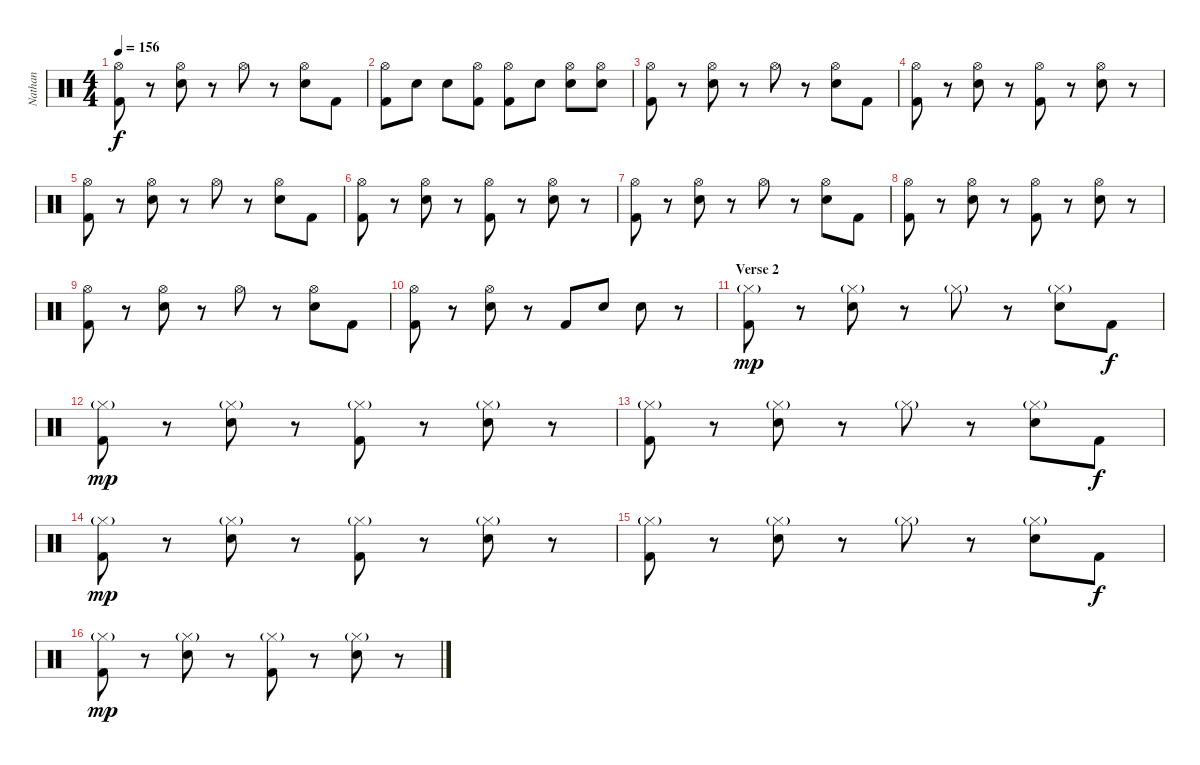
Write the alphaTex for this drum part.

\track ("Nathan" "Nathan") {instrument percussion}
\staff {score}
\articulation defaults
\ts (4 4)
\tempo 156
\clef neutral
\ks c
("Hi-Hat (open)" "Kick (hit) 2").8{dy f} r.8 ("Hi-Hat (open)" "Electric Snare (hit)").8 r.8 "Hi-Hat (open)".8 r.8 ("Hi-Hat (open)" "Electric Snare (hit)").8 "Kick (hit) 2".8 |
("Hi-Hat (open)" "Kick (hit) 2").8 "Electric Snare (hit)".8 "Electric Snare (hit)".8 ("Hi-Hat (open)" "Kick (hit) 2").8 ("Hi-Hat (open)" "Kick (hit) 2").8 "Electric Snare (hit)".8 ("Hi-Hat (open)" "Electric Snare (hit)").8 ("Hi-Hat (open)" "Electric Snare (hit)").8 |
("Hi-Hat (open)" "Kick (hit) 2").8 r.8 ("Hi-Hat (open)" "Electric Snare (hit)").8 r.8 "Hi-Hat (open)".8 r.8 ("Hi-Hat (open)" "Electric Snare (hit)").8 "Kick (hit) 2".8 |
("Hi-Hat (open)" "Kick (hit) 2").8 r.8 ("Hi-Hat (open)" "Electric Snare (hit)").8 r.8 ("Hi-Hat (open)" "Kick (hit) 2").8 r.8 ("Hi-Hat (open)" "Electric Snare (hit)").8 r.8 |
("Hi-Hat (open)" "Kick (hit) 2").8 r.8 ("Hi-Hat (open)" "Electric Snare (hit)").8 r.8 "Hi-Hat (open)".8 r.8 ("Hi-Hat (open)" "Electric Snare (hit)").8 "Kick (hit) 2".8 |
("Hi-Hat (open)" "Kick (hit) 2").8 r.8 ("Hi-Hat (open)" "Electric Snare (hit)").8 r.8 ("Hi-Hat (open)" "Kick (hit) 2").8 r.8 ("Hi-Hat (open)" "Electric Snare (hit)").8 r.8 |
("Hi-Hat (open)" "Kick (hit) 2").8 r.8 ("Hi-Hat (open)" "Electric Snare (hit)").8 r.8 "Hi-Hat (open)".8 r.8 ("Hi-Hat (open)" "Electric Snare (hit)").8 "Kick (hit) 2".8 |
("Hi-Hat (open)" "Kick (hit) 2").8 r.8 ("Hi-Hat (open)" "Electric Snare (hit)").8 r.8 ("Hi-Hat (open)" "Kick (hit) 2").8 r.8 ("Hi-Hat (open)" "Electric Snare (hit)").8 r.8 |
("Hi-Hat (open)" "Kick (hit) 2").8 r.8 ("Hi-Hat (open)" "Electric Snare (hit)").8 r.8 "Hi-Hat (open)".8 r.8 ("Hi-Hat (open)" "Electric Snare (hit)").8 "Kick (hit) 2".8 |
("Hi-Hat (open)" "Kick (hit) 2").8 r.8 ("Hi-Hat (open)" "Electric Snare (hit)").8 r.8 "Kick (hit) 2".8 "Electric Snare (hit)".8 "Electric Snare (hit)".8 r.8 |
\section ("" "Verse 2")
("Hi-Hat (closed)"{g} "Kick (hit) 2").8{dy mp} r.8 ("Hi-Hat (closed)"{g} "Electric Snare (hit)").8 r.8 "Hi-Hat (closed)"{g}.8 r.8 ("Hi-Hat (closed)"{g} "Electric Snare (hit)").8 "Kick (hit) 2".8{dy f} |
("Hi-Hat (closed)"{g} "Kick (hit) 2").8{dy mp} r.8 ("Hi-Hat (closed)"{g} "Electric Snare (hit)").8 r.8 ("Hi-Hat (closed)"{g} "Kick (hit) 2").8 r.8 ("Hi-Hat (closed)"{g} "Electric Snare (hit)").8 r.8 |
("Hi-Hat (closed)"{g} "Kick (hit) 2").8 r.8 ("Hi-Hat (closed)"{g} "Electric Snare (hit)").8 r.8 "Hi-Hat (closed)"{g}.8 r.8 ("Hi-Hat (closed)"{g} "Electric Snare (hit)").8 "Kick (hit) 2".8{dy f} |
("Hi-Hat (closed)"{g} "Kick (hit) 2").8{dy mp} r.8 ("Hi-Hat (closed)"{g} "Electric Snare (hit)").8 r.8 ("Hi-Hat (closed)"{g} "Kick (hit) 2").8 r.8 ("Hi-Hat (closed)"{g} "Electric Snare (hit)").8 r.8 |
("Hi-Hat (closed)"{g} "Kick (hit) 2").8 r.8 ("Hi-Hat (closed)"{g} "Electric Snare (hit)").8 r.8 "Hi-Hat (closed)"{g}.8 r.8 ("Hi-Hat (closed)"{g} "Electric Snare (hit)").8 "Kick (hit) 2".8{dy f} |
("Hi-Hat (closed)"{g} "Kick (hit) 2").8{dy mp} r.8 ("Hi-Hat (closed)"{g} "Electric Snare (hit)").8 r.8 ("Hi-Hat (closed)"{g} "Kick (hit) 2").8 r.8 ("Hi-Hat (closed)"{g} "Electric Snare (hit)").8 r.8
